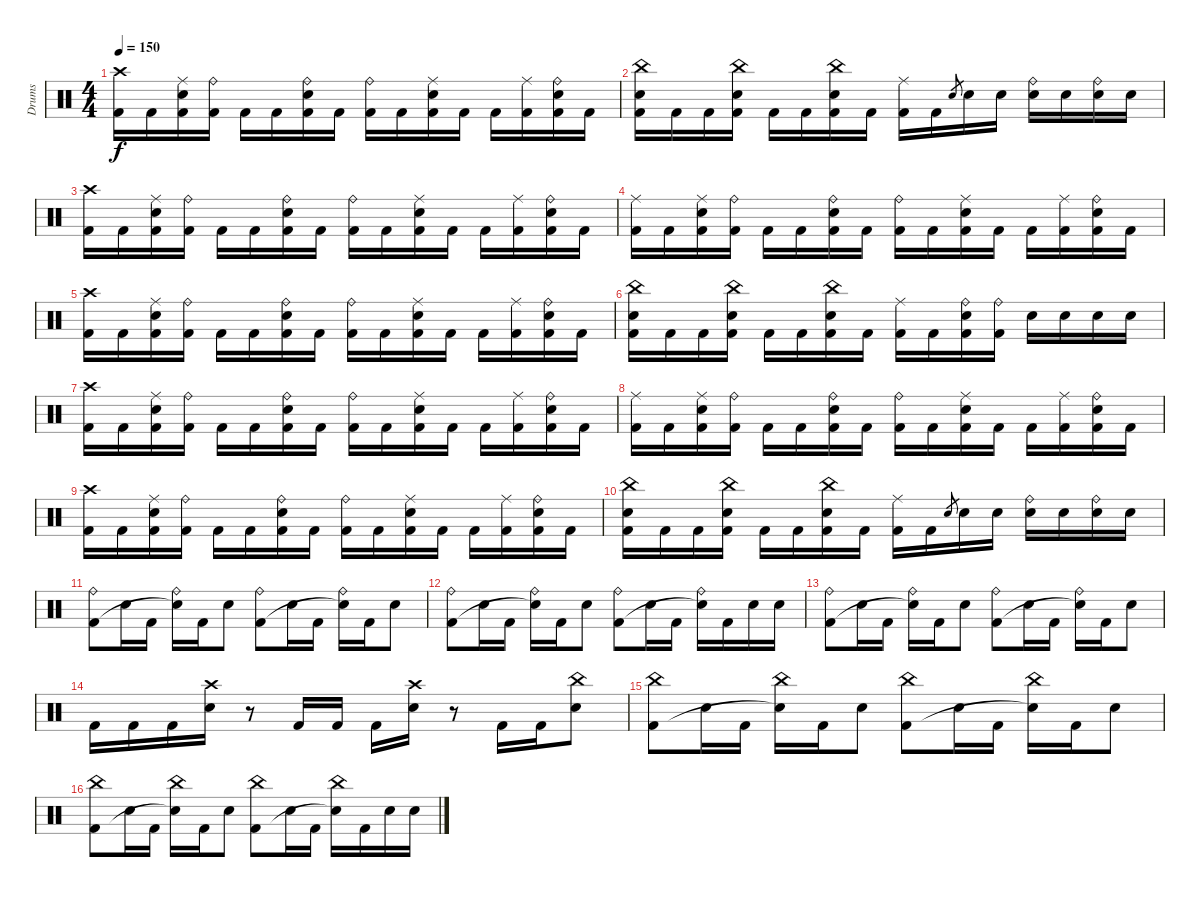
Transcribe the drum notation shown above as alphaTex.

\track ("Drums" "Drums") {instrument percussion}
\staff {score}
\articulation defaults
\ts (4 4)
\tempo 150
\clef neutral
\ks c
("Crash high (hit)" "Kick (hit) 2").16{dy f} "Kick (hit) 2".16 ("Ride (middle)" "Snare (hit) 2" "Kick (hit) 2").16 ("Ride (bell)" "Kick (hit) 2").16 "Kick (hit) 2".16 "Kick (hit) 2".16 ("Ride (bell)" "Snare (hit) 2" "Kick (hit) 2").16 "Kick (hit) 2".16 ("Ride (bell)" "Kick (hit) 2").16 "Kick (hit) 2".16 ("Ride (middle)" "Snare (hit) 2" "Kick (hit) 2").16 "Kick (hit) 2".16 "Kick (hit) 2".16 ("Ride (middle)" "Kick (hit) 2").16 ("Ride (bell)" "Snare (hit) 2" "Kick (hit) 2").16 "Kick (hit) 2".16 |
("China (hit)" "Snare (hit) 2" "Kick (hit) 2").16 "Kick (hit) 2".16 "Kick (hit) 2".16 ("China (hit)" "Snare (hit) 2" "Kick (hit) 2").16 "Kick (hit) 2".16 "Kick (hit) 2".16 ("China (hit)" "Snare (hit) 2" "Kick (hit) 2").16 "Kick (hit) 2".16 ("Ride (middle)" "Kick (hit) 2").16 "Kick (hit) 2".16 "Snare (hit) 2".8{gr} "Snare (hit) 2".16 "Snare (hit) 2".16 ("Ride (bell)" "Snare (hit) 2").16 "Snare (hit) 2".16 ("Ride (bell)" "Snare (hit) 2").16 "Snare (hit) 2".16 |
("Crash high (hit)" "Kick (hit) 2").16 "Kick (hit) 2".16 ("Ride (middle)" "Snare (hit) 2" "Kick (hit) 2").16 ("Ride (bell)" "Kick (hit) 2").16 "Kick (hit) 2".16 "Kick (hit) 2".16 ("Ride (bell)" "Snare (hit) 2" "Kick (hit) 2").16 "Kick (hit) 2".16 ("Ride (bell)" "Kick (hit) 2").16 "Kick (hit) 2".16 ("Ride (middle)" "Snare (hit) 2" "Kick (hit) 2").16 "Kick (hit) 2".16 "Kick (hit) 2".16 ("Ride (middle)" "Kick (hit) 2").16 ("Ride (bell)" "Snare (hit) 2" "Kick (hit) 2").16 "Kick (hit) 2".16 |
("Ride (middle)" "Kick (hit) 2").16 "Kick (hit) 2".16 ("Ride (middle)" "Snare (hit) 2" "Kick (hit) 2").16 ("Ride (bell)" "Kick (hit) 2").16 "Kick (hit) 2".16 "Kick (hit) 2".16 ("Ride (bell)" "Snare (hit) 2" "Kick (hit) 2").16 "Kick (hit) 2".16 ("Ride (bell)" "Kick (hit) 2").16 "Kick (hit) 2".16 ("Ride (middle)" "Snare (hit) 2" "Kick (hit) 2").16 "Kick (hit) 2".16 "Kick (hit) 2".16 ("Ride (middle)" "Kick (hit) 2").16 ("Ride (bell)" "Snare (hit) 2" "Kick (hit) 2").16 "Kick (hit) 2".16 |
("Crash high (hit)" "Kick (hit) 2").16 "Kick (hit) 2".16 ("Ride (middle)" "Snare (hit) 2" "Kick (hit) 2").16 ("Ride (bell)" "Kick (hit) 2").16 "Kick (hit) 2".16 "Kick (hit) 2".16 ("Ride (bell)" "Snare (hit) 2" "Kick (hit) 2").16 "Kick (hit) 2".16 ("Ride (bell)" "Kick (hit) 2").16 "Kick (hit) 2".16 ("Ride (middle)" "Snare (hit) 2" "Kick (hit) 2").16 "Kick (hit) 2".16 "Kick (hit) 2".16 ("Ride (middle)" "Kick (hit) 2").16 ("Ride (bell)" "Snare (hit) 2" "Kick (hit) 2").16 "Kick (hit) 2".16 |
("China (hit)" "Snare (hit) 2" "Kick (hit) 2").16 "Kick (hit) 2".16 "Kick (hit) 2".16 ("China (hit)" "Snare (hit) 2" "Kick (hit) 2").16 "Kick (hit) 2".16 "Kick (hit) 2".16 ("China (hit)" "Snare (hit) 2" "Kick (hit) 2").16 "Kick (hit) 2".16 ("Ride (middle)" "Kick (hit) 2").16 "Kick (hit) 2".16 ("Ride (bell)" "Snare (hit) 2" "Kick (hit) 2").16 ("Ride (bell)" "Kick (hit) 2").16 "Snare (hit) 2".16 "Snare (hit) 2".16 "Snare (hit) 2".16 "Snare (hit) 2".16 |
("Crash high (hit)" "Kick (hit) 2").16 "Kick (hit) 2".16 ("Ride (middle)" "Snare (hit) 2" "Kick (hit) 2").16 ("Ride (bell)" "Kick (hit) 2").16 "Kick (hit) 2".16 "Kick (hit) 2".16 ("Ride (bell)" "Snare (hit) 2" "Kick (hit) 2").16 "Kick (hit) 2".16 ("Ride (bell)" "Kick (hit) 2").16 "Kick (hit) 2".16 ("Ride (middle)" "Snare (hit) 2" "Kick (hit) 2").16 "Kick (hit) 2".16 "Kick (hit) 2".16 ("Ride (middle)" "Kick (hit) 2").16 ("Ride (bell)" "Snare (hit) 2" "Kick (hit) 2").16 "Kick (hit) 2".16 |
("Ride (middle)" "Kick (hit) 2").16 "Kick (hit) 2".16 ("Ride (middle)" "Snare (hit) 2" "Kick (hit) 2").16 ("Ride (bell)" "Kick (hit) 2").16 "Kick (hit) 2".16 "Kick (hit) 2".16 ("Ride (bell)" "Snare (hit) 2" "Kick (hit) 2").16 "Kick (hit) 2".16 ("Ride (bell)" "Kick (hit) 2").16 "Kick (hit) 2".16 ("Ride (middle)" "Snare (hit) 2" "Kick (hit) 2").16 "Kick (hit) 2".16 "Kick (hit) 2".16 ("Ride (middle)" "Kick (hit) 2").16 ("Ride (bell)" "Snare (hit) 2" "Kick (hit) 2").16 "Kick (hit) 2".16 |
("Crash high (hit)" "Kick (hit) 2").16 "Kick (hit) 2".16 ("Ride (middle)" "Snare (hit) 2" "Kick (hit) 2").16 ("Ride (bell)" "Kick (hit) 2").16 "Kick (hit) 2".16 "Kick (hit) 2".16 ("Ride (bell)" "Snare (hit) 2" "Kick (hit) 2").16 "Kick (hit) 2".16 ("Ride (bell)" "Kick (hit) 2").16 "Kick (hit) 2".16 ("Ride (middle)" "Snare (hit) 2" "Kick (hit) 2").16 "Kick (hit) 2".16 "Kick (hit) 2".16 ("Ride (middle)" "Kick (hit) 2").16 ("Ride (bell)" "Snare (hit) 2" "Kick (hit) 2").16 "Kick (hit) 2".16 |
("China (hit)" "Snare (hit) 2" "Kick (hit) 2").16 "Kick (hit) 2".16 "Kick (hit) 2".16 ("China (hit)" "Snare (hit) 2" "Kick (hit) 2").16 "Kick (hit) 2".16 "Kick (hit) 2".16 ("China (hit)" "Snare (hit) 2" "Kick (hit) 2").16 "Kick (hit) 2".16 ("Ride (middle)" "Kick (hit) 2").16 "Kick (hit) 2".16 "Snare (hit) 2".8{gr} "Snare (hit) 2".16 "Snare (hit) 2".16 ("Ride (bell)" "Snare (hit) 2").16 "Snare (hit) 2".16 ("Ride (bell)" "Snare (hit) 2").16 "Snare (hit) 2".16 |
("Ride (bell)" "Kick (hit) 2").8 "Snare (hit) 2".16 "Kick (hit) 2".16 ("Ride (bell)" "Snare (hit)"{t}).16 "Kick (hit) 2".16 "Snare (hit) 2".8 ("Ride (bell)" "Kick (hit) 2").8 "Snare (hit) 2".16 "Kick (hit) 2".16 ("Ride (bell)" "Snare (hit)"{t}).16 "Kick (hit) 2".16 "Snare (hit) 2".8 |
("Ride (bell)" "Kick (hit) 2").8 "Snare (hit) 2".16 "Kick (hit) 2".16 ("Ride (bell)" "Snare (hit)"{t}).16 "Kick (hit) 2".16 "Snare (hit) 2".8 ("Ride (bell)" "Kick (hit) 2").8 "Snare (hit) 2".16 "Kick (hit) 2".16 ("Ride (bell)" "Snare (hit)"{t}).16 "Kick (hit) 2".16 "Snare (hit) 2".16 "Snare (hit) 2".16 |
("Ride (bell)" "Kick (hit) 2").8 "Snare (hit) 2".16 "Kick (hit) 2".16 ("Ride (bell)" "Snare (hit)"{t}).16 "Kick (hit) 2".16 "Snare (hit) 2".8 ("Ride (bell)" "Kick (hit) 2").8 "Snare (hit) 2".16 "Kick (hit) 2".16 ("Ride (bell)" "Snare (hit)"{t}).16 "Kick (hit) 2".16 "Snare (hit) 2".8 |
"Kick (hit) 2".16 "Kick (hit) 2".16 "Kick (hit) 2".16 ("Crash high (hit)" "Snare (hit) 2").16 r.8 "Kick (hit) 2".16 "Kick (hit) 2".16 "Kick (hit) 2".16 ("Crash high (hit)" "Snare (hit) 2").16 r.8 "Kick (hit) 2".16 "Kick (hit) 2".16 ("China (hit)" "Snare (hit) 2").8 |
("China (hit)" "Kick (hit) 2").8 "Snare (hit) 2".16 "Kick (hit) 2".16 ("China (hit)" "Snare (hit)"{t}).16 "Kick (hit) 2".16 "Snare (hit) 2".8 ("China (hit)" "Kick (hit) 2").8 "Snare (hit) 2".16 "Kick (hit) 2".16 ("China (hit)" "Snare (hit)"{t}).16 "Kick (hit) 2".16 "Snare (hit) 2".8 |
("China (hit)" "Kick (hit) 2").8 "Snare (hit) 2".16 "Kick (hit) 2".16 ("China (hit)" "Snare (hit)"{t}).16 "Kick (hit) 2".16 "Snare (hit) 2".8 ("China (hit)" "Kick (hit) 2").8 "Snare (hit) 2".16 "Kick (hit) 2".16 ("China (hit)" "Snare (hit)"{t}).16 "Kick (hit) 2".16 "Snare (hit) 2".16 "Snare (hit) 2".16
